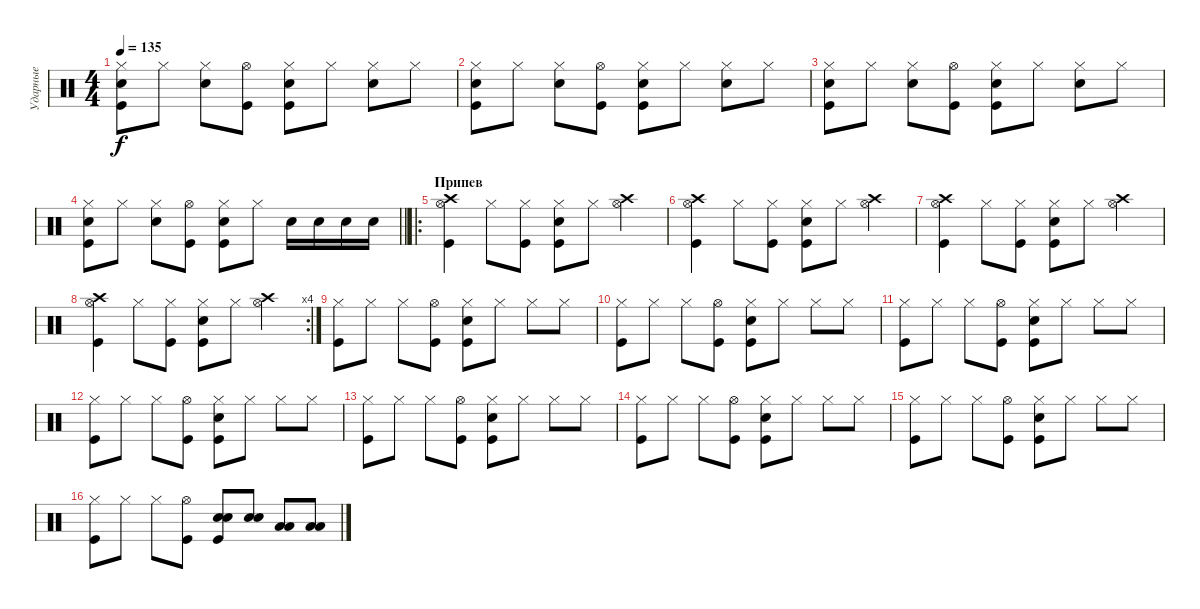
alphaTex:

\track ("Ударные" "Ударные") {instrument percussion}
\staff {score}
\articulation defaults
\ts (4 4)
\tempo 135
\clef neutral
\ks c
("Hi-Hat (closed)" "Kick (hit)" "Snare (hit) 2").8{dy f} "Hi-Hat (closed)".8 ("Hi-Hat (closed)" "Snare (hit) 2").8 ("Hi-Hat (open)" "Kick (hit)").8 ("Hi-Hat (closed)" "Snare (hit) 2" "Kick (hit)").8 "Hi-Hat (closed)".8 ("Hi-Hat (closed)" "Snare (hit) 2").8 "Hi-Hat (closed)".8 |
("Hi-Hat (closed)" "Kick (hit)" "Snare (hit) 2").8 "Hi-Hat (closed)".8 ("Hi-Hat (closed)" "Snare (hit) 2").8 ("Hi-Hat (open)" "Kick (hit)").8 ("Hi-Hat (closed)" "Snare (hit) 2" "Kick (hit)").8 "Hi-Hat (closed)".8 ("Hi-Hat (closed)" "Snare (hit) 2").8 "Hi-Hat (closed)".8 |
("Hi-Hat (closed)" "Kick (hit)" "Snare (hit) 2").8 "Hi-Hat (closed)".8 ("Hi-Hat (closed)" "Snare (hit) 2").8 ("Hi-Hat (open)" "Kick (hit)").8 ("Hi-Hat (closed)" "Snare (hit) 2" "Kick (hit)").8 "Hi-Hat (closed)".8 ("Hi-Hat (closed)" "Snare (hit) 2").8 "Hi-Hat (closed)".8 |
\barLineRight lightlight
("Hi-Hat (closed)" "Kick (hit)" "Snare (hit) 2").8 "Hi-Hat (closed)".8 ("Hi-Hat (closed)" "Snare (hit) 2").8 ("Hi-Hat (open)" "Kick (hit)").8 ("Hi-Hat (closed)" "Snare (hit) 2" "Kick (hit)").8 "Hi-Hat (closed)".8 "Snare (hit) 2".16 "Snare (hit) 2".16 "Snare (hit) 2".16 "Snare (hit) 2".16 |
\ro
\section ("" "Припев")
("Hi-Hat (open)" "Crash high (hit)" "Kick (hit)").4 "Hi-Hat (closed)".8 ("Hi-Hat (closed)" "Kick (hit)").8 ("Hi-Hat (closed)" "Snare (hit) 2" "Kick (hit)").8 "Hi-Hat (closed)".8 ("Hi-Hat (open)" "Crash high (hit)").4 |
("Hi-Hat (open)" "Crash high (hit)" "Kick (hit)").4 "Hi-Hat (closed)".8 ("Hi-Hat (closed)" "Kick (hit)").8 ("Hi-Hat (closed)" "Snare (hit) 2" "Kick (hit)").8 "Hi-Hat (closed)".8 ("Hi-Hat (open)" "Crash high (hit)").4 |
("Hi-Hat (open)" "Crash high (hit)" "Kick (hit)").4 "Hi-Hat (closed)".8 ("Hi-Hat (closed)" "Kick (hit)").8 ("Hi-Hat (closed)" "Snare (hit) 2" "Kick (hit)").8 "Hi-Hat (closed)".8 ("Hi-Hat (open)" "Crash high (hit)").4 |
\rc 4
("Hi-Hat (open)" "Crash high (hit)" "Kick (hit)").4 "Hi-Hat (closed)".8 ("Hi-Hat (closed)" "Kick (hit)").8 ("Hi-Hat (closed)" "Snare (hit) 2" "Kick (hit)").8 "Hi-Hat (closed)".8 ("Hi-Hat (open)" "Crash high (hit)").4 |
("Hi-Hat (closed)" "Kick (hit)").8 "Hi-Hat (closed)".8 "Hi-Hat (closed)".8 ("Hi-Hat (open)" "Kick (hit)").8 ("Hi-Hat (closed)" "Snare (hit) 2" "Kick (hit)").8 "Hi-Hat (closed)".8 "Hi-Hat (closed)".8 "Hi-Hat (closed)".8 |
("Hi-Hat (closed)" "Kick (hit)").8 "Hi-Hat (closed)".8 "Hi-Hat (closed)".8 ("Hi-Hat (open)" "Kick (hit)").8 ("Hi-Hat (closed)" "Snare (hit) 2" "Kick (hit)").8 "Hi-Hat (closed)".8 "Hi-Hat (closed)".8 "Hi-Hat (closed)".8 |
("Hi-Hat (closed)" "Kick (hit)").8 "Hi-Hat (closed)".8 "Hi-Hat (closed)".8 ("Hi-Hat (open)" "Kick (hit)").8 ("Hi-Hat (closed)" "Snare (hit) 2" "Kick (hit)").8 "Hi-Hat (closed)".8 "Hi-Hat (closed)".8 "Hi-Hat (closed)".8 |
("Hi-Hat (closed)" "Kick (hit)").8 "Hi-Hat (closed)".8 "Hi-Hat (closed)".8 ("Hi-Hat (open)" "Kick (hit)").8 ("Hi-Hat (closed)" "Snare (hit) 2" "Kick (hit)").8 "Hi-Hat (closed)".8 "Hi-Hat (closed)".8 "Hi-Hat (closed)".8 |
("Hi-Hat (closed)" "Kick (hit)").8 "Hi-Hat (closed)".8 "Hi-Hat (closed)".8 ("Hi-Hat (open)" "Kick (hit)").8 ("Hi-Hat (closed)" "Snare (hit) 2" "Kick (hit)").8 "Hi-Hat (closed)".8 "Hi-Hat (closed)".8 "Hi-Hat (closed)".8 |
("Hi-Hat (closed)" "Kick (hit)").8 "Hi-Hat (closed)".8 "Hi-Hat (closed)".8 ("Hi-Hat (open)" "Kick (hit)").8 ("Hi-Hat (closed)" "Snare (hit) 2" "Kick (hit)").8 "Hi-Hat (closed)".8 "Hi-Hat (closed)".8 "Hi-Hat (closed)".8 |
("Hi-Hat (closed)" "Kick (hit)").8 "Hi-Hat (closed)".8 "Hi-Hat (closed)".8 ("Hi-Hat (open)" "Kick (hit)").8 ("Hi-Hat (closed)" "Snare (hit) 2" "Kick (hit)").8 "Hi-Hat (closed)".8 "Hi-Hat (closed)".8 "Hi-Hat (closed)".8 |
("Hi-Hat (closed)" "Kick (hit)").8 "Hi-Hat (closed)".8 "Hi-Hat (closed)".8 ("Hi-Hat (open)" "Kick (hit)").8 ("Snare (hit) 2" "Snare (hit) 2" "Kick (hit)").8 ("Snare (hit) 2" "Snare (hit) 2").8 ("Low Tom (hit)" "Low Tom (hit)").8 ("Low Tom (hit)" "Low Tom (hit)").8
